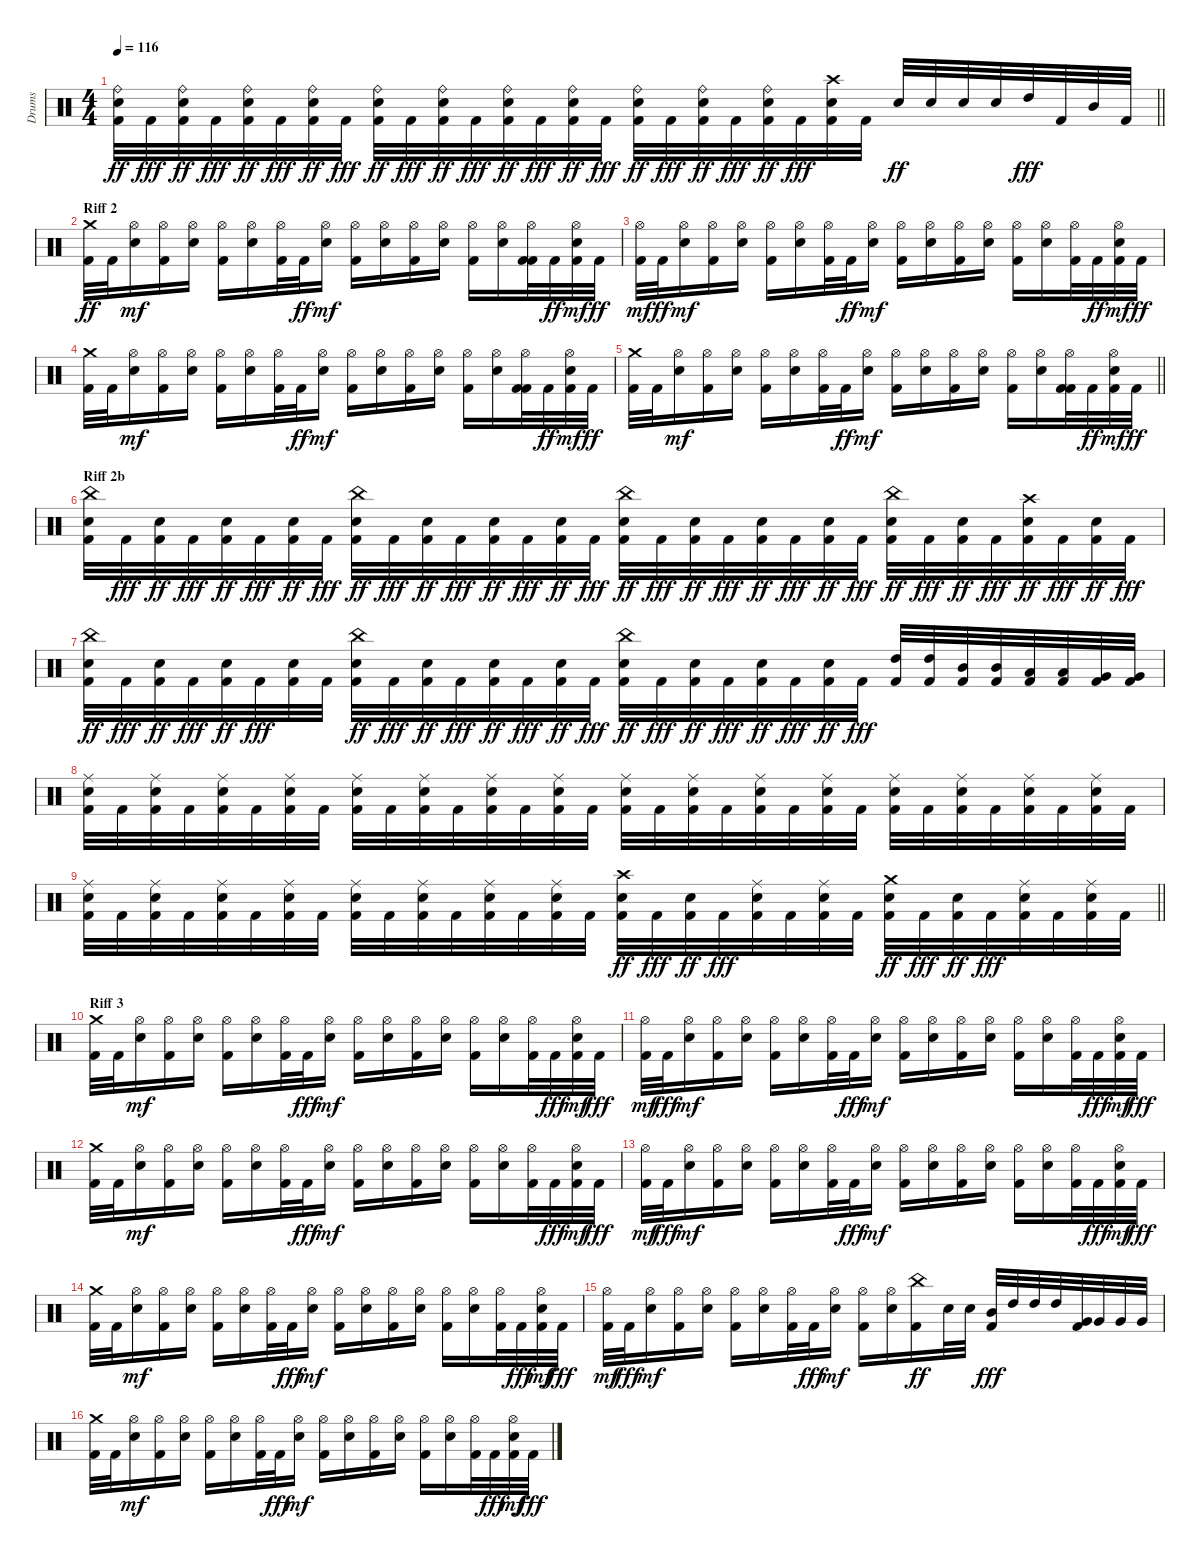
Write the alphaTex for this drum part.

\track ("Drums" "Drums") {instrument percussion}
\staff {score}
\articulation defaults
\ts (4 4)
\tempo 116
\clef neutral
\barLineRight lightlight
\ks c
("Kick (hit) 2" "Snare (hit) 2" "Ride (bell)").32{dy ff} "Kick (hit) 2".32{dy fff} ("Kick (hit) 2" "Snare (hit) 2" "Ride (bell)").32{dy ff} "Kick (hit) 2".32{dy fff} ("Kick (hit) 2" "Snare (hit) 2" "Ride (bell)").32{dy ff} "Kick (hit) 2".32{dy fff} ("Kick (hit) 2" "Snare (hit) 2" "Ride (bell)").32{dy ff} "Kick (hit) 2".32{dy fff} ("Kick (hit) 2" "Snare (hit) 2" "Ride (bell)").32{dy ff} "Kick (hit) 2".32{dy fff} ("Kick (hit) 2" "Snare (hit) 2" "Ride (bell)").32{dy ff} "Kick (hit) 2".32{dy fff} ("Kick (hit) 2" "Snare (hit) 2" "Ride (bell)").32{dy ff} "Kick (hit) 2".32{dy fff} ("Kick (hit) 2" "Snare (hit) 2" "Ride (bell)").32{dy ff} "Kick (hit) 2".32{dy fff} ("Kick (hit) 2" "Snare (hit) 2" "Ride (bell)").32{dy ff} "Kick (hit) 2".32{dy fff} ("Kick (hit) 2" "Snare (hit) 2" "Ride (bell)").32{dy ff} "Kick (hit) 2".32{dy fff} ("Kick (hit) 2" "Snare (hit) 2" "Ride (bell)").32{dy ff} "Kick (hit) 2".32{dy fff} ("Kick (hit) 2" "Snare (hit) 2" "Crash high (hit)").32 "Kick (hit) 2".32 "Snare (hit) 2".32{dy ff} "Snare (hit) 2".32 "Snare (hit) 2".32 "Snare (hit) 2".32 "High Tom (hit)".32{dy fff} "Kick (hit) 2".32 "Mid Tom (hit)".32 "Kick (hit) 2".32 |
\section ("" "Riff 2")
("Kick (hit) 2" "Crash medium (hit)").32{dy ff} "Kick (hit) 2".32 ("Snare (hit) 2" "Hi-Hat (open)").16{dy mf} ("Kick (hit) 2" "Hi-Hat (open)").16 ("Snare (hit) 2" "Hi-Hat (open)").16 ("Kick (hit) 2" "Hi-Hat (open)").16 ("Snare (hit) 2" "Hi-Hat (open)").16 ("Kick (hit) 2" "Hi-Hat (open)").32 "Kick (hit) 2".32{dy ff} ("Snare (hit) 2" "Hi-Hat (open)").16{dy mf} ("Kick (hit) 2" "Hi-Hat (open)").16 ("Snare (hit) 2" "Hi-Hat (open)").16 ("Kick (hit) 2" "Hi-Hat (open)").16 ("Snare (hit) 2" "Hi-Hat (open)").16 ("Kick (hit) 2" "Hi-Hat (open)").16 ("Snare (hit) 2" "Hi-Hat (open)").16 ("Kick (hit) 2" "Kick (hit) 2" "Hi-Hat (open)").32 "Kick (hit) 2".32{dy ff} ("Kick (hit) 2" "Snare (hit) 2" "Hi-Hat (open)").32{dy mf} "Kick (hit) 2".32{dy ff} |
("Kick (hit) 2" "Hi-Hat (open)").32{dy mf} "Kick (hit) 2".32{dy ff} ("Snare (hit) 2" "Hi-Hat (open)").16{dy mf} ("Kick (hit) 2" "Hi-Hat (open)").16 ("Snare (hit) 2" "Hi-Hat (open)").16 ("Kick (hit) 2" "Hi-Hat (open)").16 ("Snare (hit) 2" "Hi-Hat (open)").16 ("Kick (hit) 2" "Hi-Hat (open)").32 "Kick (hit) 2".32{dy ff} ("Snare (hit) 2" "Hi-Hat (open)").16{dy mf} ("Kick (hit) 2" "Hi-Hat (open)").16 ("Snare (hit) 2" "Hi-Hat (open)").16 ("Kick (hit) 2" "Hi-Hat (open)").16 ("Snare (hit) 2" "Hi-Hat (open)").16 ("Kick (hit) 2" "Hi-Hat (open)").16 ("Snare (hit) 2" "Hi-Hat (open)").16 ("Kick (hit) 2" "Hi-Hat (open)").32 "Kick (hit) 2".32{dy ff} ("Kick (hit) 2" "Snare (hit) 2" "Hi-Hat (open)").32{dy mf} "Kick (hit) 2".32{dy ff} |
("Kick (hit) 2" "Crash medium (hit)").32 "Kick (hit) 2".32 ("Snare (hit) 2" "Hi-Hat (open)").16{dy mf} ("Kick (hit) 2" "Hi-Hat (open)").16 ("Snare (hit) 2" "Hi-Hat (open)").16 ("Kick (hit) 2" "Hi-Hat (open)").16 ("Snare (hit) 2" "Hi-Hat (open)").16 ("Kick (hit) 2" "Hi-Hat (open)").32 "Kick (hit) 2".32{dy ff} ("Snare (hit) 2" "Hi-Hat (open)").16{dy mf} ("Kick (hit) 2" "Hi-Hat (open)").16 ("Snare (hit) 2" "Hi-Hat (open)").16 ("Kick (hit) 2" "Hi-Hat (open)").16 ("Snare (hit) 2" "Hi-Hat (open)").16 ("Kick (hit) 2" "Hi-Hat (open)").16 ("Snare (hit) 2" "Hi-Hat (open)").16 ("Kick (hit) 2" "Kick (hit) 2" "Hi-Hat (open)").32 "Kick (hit) 2".32{dy ff} ("Kick (hit) 2" "Snare (hit) 2" "Hi-Hat (open)").32{dy mf} "Kick (hit) 2".32{dy ff} |
\barLineRight lightlight
("Kick (hit) 2" "Crash medium (hit)").32 "Kick (hit) 2".32 ("Snare (hit) 2" "Hi-Hat (open)").16{dy mf} ("Kick (hit) 2" "Hi-Hat (open)").16 ("Snare (hit) 2" "Hi-Hat (open)").16 ("Kick (hit) 2" "Hi-Hat (open)").16 ("Snare (hit) 2" "Hi-Hat (open)").16 ("Kick (hit) 2" "Hi-Hat (open)").32 "Kick (hit) 2".32{dy ff} ("Snare (hit) 2" "Hi-Hat (open)").16{dy mf} ("Kick (hit) 2" "Hi-Hat (open)").16 ("Snare (hit) 2" "Hi-Hat (open)").16 ("Kick (hit) 2" "Hi-Hat (open)").16 ("Snare (hit) 2" "Hi-Hat (open)").16 ("Kick (hit) 2" "Hi-Hat (open)").16 ("Snare (hit) 2" "Hi-Hat (open)").16 ("Kick (hit) 2" "Kick (hit) 2" "Hi-Hat (open)").32 "Kick (hit) 2".32{dy ff} ("Kick (hit) 2" "Snare (hit) 2" "Hi-Hat (open)").32{dy mf} "Kick (hit) 2".32{dy ff} |
\section ("" "Riff 2b")
("Kick (hit) 2" "Snare (hit) 2" "China (hit)").32 "Kick (hit) 2".32{dy fff} ("Kick (hit) 2" "Snare (hit) 2").32{dy ff} "Kick (hit) 2".32{dy fff} ("Kick (hit) 2" "Snare (hit) 2").32{dy ff} "Kick (hit) 2".32{dy fff} ("Kick (hit) 2" "Snare (hit) 2").32{dy ff} "Kick (hit) 2".32{dy fff} ("Kick (hit) 2" "Snare (hit) 2" "China (hit)").32{dy ff} "Kick (hit) 2".32{dy fff} ("Kick (hit) 2" "Snare (hit) 2").32{dy ff} "Kick (hit) 2".32{dy fff} ("Kick (hit) 2" "Snare (hit) 2").32{dy ff} "Kick (hit) 2".32{dy fff} ("Kick (hit) 2" "Snare (hit) 2").32{dy ff} "Kick (hit) 2".32{dy fff} ("Kick (hit) 2" "Snare (hit) 2" "China (hit)").32{dy ff} "Kick (hit) 2".32{dy fff} ("Kick (hit) 2" "Snare (hit) 2").32{dy ff} "Kick (hit) 2".32{dy fff} ("Kick (hit) 2" "Snare (hit) 2").32{dy ff} "Kick (hit) 2".32{dy fff} ("Kick (hit) 2" "Snare (hit) 2").32{dy ff} "Kick (hit) 2".32{dy fff} ("Kick (hit) 2" "Snare (hit) 2" "China (hit)").32{dy ff} "Kick (hit) 2".32{dy fff} ("Kick (hit) 2" "Snare (hit) 2").32{dy ff} "Kick (hit) 2".32{dy fff} ("Kick (hit) 2" "Snare (hit) 2" "Crash high (hit)").32{dy ff} "Kick (hit) 2".32{dy fff} ("Kick (hit) 2" "Snare (hit) 2").32{dy ff} "Kick (hit) 2".32{dy fff} |
("Kick (hit) 2" "Snare (hit) 2" "China (hit)").32{dy ff} "Kick (hit) 2".32{dy fff} ("Kick (hit) 2" "Snare (hit) 2").32{dy ff} "Kick (hit) 2".32{dy fff} ("Kick (hit) 2" "Snare (hit) 2").32{dy ff} "Kick (hit) 2".32{dy fff} ("Kick (hit) 2" "Snare (hit) 2").32 "Kick (hit) 2".32 ("Kick (hit) 2" "Snare (hit) 2" "China (hit)").32{dy ff} "Kick (hit) 2".32{dy fff} ("Kick (hit) 2" "Snare (hit) 2").32{dy ff} "Kick (hit) 2".32{dy fff} ("Kick (hit) 2" "Snare (hit) 2").32{dy ff} "Kick (hit) 2".32{dy fff} ("Kick (hit) 2" "Snare (hit) 2").32{dy ff} "Kick (hit) 2".32{dy fff} ("Kick (hit) 2" "Snare (hit) 2" "China (hit)").32{dy ff} "Kick (hit) 2".32{dy fff} ("Kick (hit) 2" "Snare (hit) 2").32{dy ff} "Kick (hit) 2".32{dy fff} ("Kick (hit) 2" "Snare (hit) 2").32{dy ff} "Kick (hit) 2".32{dy fff} ("Kick (hit) 2" "Snare (hit) 2").32{dy ff} "Kick (hit) 2".32{dy fff} ("Kick (hit) 2" "High Tom (hit)").32 ("Kick (hit) 2" "High Tom (hit)").32 ("Kick (hit) 2" "Mid Tom (hit)").32 ("Kick (hit) 2" "Mid Tom (hit)").32 ("Kick (hit) 2" "Low Tom (hit)").32 ("Kick (hit) 2" "Low Tom (hit)").32 ("Kick (hit) 2" "Very Low Tom (hit)").32 ("Kick (hit) 2" "Very Low Tom (hit)").32 |
("Kick (hit) 2" "Snare (hit) 2" "Ride (middle)").32 "Kick (hit) 2".32 ("Kick (hit) 2" "Snare (hit) 2" "Ride (middle)").32 "Kick (hit) 2".32 ("Kick (hit) 2" "Snare (hit) 2" "Ride (middle)").32 "Kick (hit) 2".32 ("Kick (hit) 2" "Snare (hit) 2" "Ride (middle)").32 "Kick (hit) 2".32 ("Kick (hit) 2" "Snare (hit) 2" "Ride (middle)").32 "Kick (hit) 2".32 ("Kick (hit) 2" "Snare (hit) 2" "Ride (middle)").32 "Kick (hit) 2".32 ("Kick (hit) 2" "Snare (hit) 2" "Ride (middle)").32 "Kick (hit) 2".32 ("Kick (hit) 2" "Snare (hit) 2" "Ride (middle)").32 "Kick (hit) 2".32 ("Kick (hit) 2" "Snare (hit) 2" "Ride (middle)").32 "Kick (hit) 2".32 ("Kick (hit) 2" "Snare (hit) 2" "Ride (middle)").32 "Kick (hit) 2".32 ("Kick (hit) 2" "Snare (hit) 2" "Ride (middle)").32 "Kick (hit) 2".32 ("Kick (hit) 2" "Snare (hit) 2" "Ride (middle)").32 "Kick (hit) 2".32 ("Kick (hit) 2" "Snare (hit) 2" "Ride (middle)").32 "Kick (hit) 2".32 ("Kick (hit) 2" "Snare (hit) 2" "Ride (middle)").32 "Kick (hit) 2".32 ("Kick (hit) 2" "Snare (hit) 2" "Ride (middle)").32 "Kick (hit) 2".32 ("Kick (hit) 2" "Snare (hit) 2" "Ride (middle)").32 "Kick (hit) 2".32 |
\barLineRight lightlight
("Kick (hit) 2" "Snare (hit) 2" "Ride (middle)").32 "Kick (hit) 2".32 ("Kick (hit) 2" "Snare (hit) 2" "Ride (middle)").32 "Kick (hit) 2".32 ("Kick (hit) 2" "Snare (hit) 2" "Ride (middle)").32 "Kick (hit) 2".32 ("Kick (hit) 2" "Snare (hit) 2" "Ride (middle)").32 "Kick (hit) 2".32 ("Kick (hit) 2" "Snare (hit) 2" "Ride (middle)").32 "Kick (hit) 2".32 ("Kick (hit) 2" "Snare (hit) 2" "Ride (middle)").32 "Kick (hit) 2".32 ("Kick (hit) 2" "Snare (hit) 2" "Ride (middle)").32 "Kick (hit) 2".32 ("Kick (hit) 2" "Snare (hit) 2" "Ride (middle)").32 "Kick (hit) 2".32 ("Kick (hit) 2" "Snare (hit) 2" "Crash high (hit)").32{dy ff} "Kick (hit) 2".32{dy fff} ("Kick (hit) 2" "Snare (hit) 2").32{dy ff} "Kick (hit) 2".32{dy fff} ("Kick (hit) 2" "Snare (hit) 2" "Ride (middle)").32 "Kick (hit) 2".32 ("Kick (hit) 2" "Snare (hit) 2" "Ride (middle)").32 "Kick (hit) 2".32 ("Kick (hit) 2" "Snare (hit) 2" "Crash medium (hit)").32{dy ff} "Kick (hit) 2".32{dy fff} ("Kick (hit) 2" "Snare (hit) 2").32{dy ff} "Kick (hit) 2".32{dy fff} ("Kick (hit) 2" "Snare (hit) 2" "Ride (middle)").32 "Kick (hit) 2".32 ("Kick (hit) 2" "Snare (hit) 2" "Ride (middle)").32 "Kick (hit) 2".32 |
\section ("" "Riff 3")
("Kick (hit) 2" "Crash medium (hit)").32 "Kick (hit) 2".32 ("Snare (hit) 2" "Hi-Hat (open)").16{dy mf} ("Kick (hit) 2" "Hi-Hat (open)").16 ("Snare (hit) 2" "Hi-Hat (open)").16 ("Kick (hit) 2" "Hi-Hat (open)").16 ("Snare (hit) 2" "Hi-Hat (open)").16 ("Kick (hit) 2" "Hi-Hat (open)").32 "Kick (hit) 2".32{dy fff} ("Snare (hit) 2" "Hi-Hat (open)").16{dy mf} ("Kick (hit) 2" "Hi-Hat (open)").16 ("Snare (hit) 2" "Hi-Hat (open)").16 ("Kick (hit) 2" "Hi-Hat (open)").16 ("Snare (hit) 2" "Hi-Hat (open)").16 ("Kick (hit) 2" "Hi-Hat (open)").16 ("Snare (hit) 2" "Hi-Hat (open)").16 ("Kick (hit) 2" "Hi-Hat (open)").32 "Kick (hit) 2".32{dy fff} ("Kick (hit) 2" "Snare (hit) 2" "Hi-Hat (open)").32{dy mf} "Kick (hit) 2".32{dy fff} |
("Kick (hit) 2" "Hi-Hat (open)").32{dy mf} "Kick (hit) 2".32{dy fff} ("Snare (hit) 2" "Hi-Hat (open)").16{dy mf} ("Kick (hit) 2" "Hi-Hat (open)").16 ("Snare (hit) 2" "Hi-Hat (open)").16 ("Kick (hit) 2" "Hi-Hat (open)").16 ("Snare (hit) 2" "Hi-Hat (open)").16 ("Kick (hit) 2" "Hi-Hat (open)").32 "Kick (hit) 2".32{dy fff} ("Snare (hit) 2" "Hi-Hat (open)").16{dy mf} ("Kick (hit) 2" "Hi-Hat (open)").16 ("Snare (hit) 2" "Hi-Hat (open)").16 ("Kick (hit) 2" "Hi-Hat (open)").16 ("Snare (hit) 2" "Hi-Hat (open)").16 ("Kick (hit) 2" "Hi-Hat (open)").16 ("Snare (hit) 2" "Hi-Hat (open)").16 ("Kick (hit) 2" "Hi-Hat (open)").32 "Kick (hit) 2".32{dy fff} ("Kick (hit) 2" "Snare (hit) 2" "Hi-Hat (open)").32{dy mf} "Kick (hit) 2".32{dy fff} |
("Kick (hit) 2" "Crash medium (hit)").32 "Kick (hit) 2".32 ("Snare (hit) 2" "Hi-Hat (open)").16{dy mf} ("Kick (hit) 2" "Hi-Hat (open)").16 ("Snare (hit) 2" "Hi-Hat (open)").16 ("Kick (hit) 2" "Hi-Hat (open)").16 ("Snare (hit) 2" "Hi-Hat (open)").16 ("Kick (hit) 2" "Hi-Hat (open)").32 "Kick (hit) 2".32{dy fff} ("Snare (hit) 2" "Hi-Hat (open)").16{dy mf} ("Kick (hit) 2" "Hi-Hat (open)").16 ("Snare (hit) 2" "Hi-Hat (open)").16 ("Kick (hit) 2" "Hi-Hat (open)").16 ("Snare (hit) 2" "Hi-Hat (open)").16 ("Kick (hit) 2" "Hi-Hat (open)").16 ("Snare (hit) 2" "Hi-Hat (open)").16 ("Kick (hit) 2" "Hi-Hat (open)").32 "Kick (hit) 2".32{dy fff} ("Kick (hit) 2" "Snare (hit) 2" "Hi-Hat (open)").32{dy mf} "Kick (hit) 2".32{dy fff} |
("Kick (hit) 2" "Hi-Hat (open)").32{dy mf} "Kick (hit) 2".32{dy fff} ("Snare (hit) 2" "Hi-Hat (open)").16{dy mf} ("Kick (hit) 2" "Hi-Hat (open)").16 ("Snare (hit) 2" "Hi-Hat (open)").16 ("Kick (hit) 2" "Hi-Hat (open)").16 ("Snare (hit) 2" "Hi-Hat (open)").16 ("Kick (hit) 2" "Hi-Hat (open)").32 "Kick (hit) 2".32{dy fff} ("Snare (hit) 2" "Hi-Hat (open)").16{dy mf} ("Kick (hit) 2" "Hi-Hat (open)").16 ("Snare (hit) 2" "Hi-Hat (open)").16 ("Kick (hit) 2" "Hi-Hat (open)").16 ("Snare (hit) 2" "Hi-Hat (open)").16 ("Kick (hit) 2" "Hi-Hat (open)").16 ("Snare (hit) 2" "Hi-Hat (open)").16 ("Kick (hit) 2" "Hi-Hat (open)").32 "Kick (hit) 2".32{dy fff} ("Kick (hit) 2" "Snare (hit) 2" "Hi-Hat (open)").32{dy mf} "Kick (hit) 2".32{dy fff} |
("Kick (hit) 2" "Crash medium (hit)").32 "Kick (hit) 2".32 ("Snare (hit) 2" "Hi-Hat (open)").16{dy mf} ("Kick (hit) 2" "Hi-Hat (open)").16 ("Snare (hit) 2" "Hi-Hat (open)").16 ("Kick (hit) 2" "Hi-Hat (open)").16 ("Snare (hit) 2" "Hi-Hat (open)").16 ("Kick (hit) 2" "Hi-Hat (open)").32 "Kick (hit) 2".32{dy fff} ("Snare (hit) 2" "Hi-Hat (open)").16{dy mf} ("Kick (hit) 2" "Hi-Hat (open)").16 ("Snare (hit) 2" "Hi-Hat (open)").16 ("Kick (hit) 2" "Hi-Hat (open)").16 ("Snare (hit) 2" "Hi-Hat (open)").16 ("Kick (hit) 2" "Hi-Hat (open)").16 ("Snare (hit) 2" "Hi-Hat (open)").16 ("Kick (hit) 2" "Hi-Hat (open)").32 "Kick (hit) 2".32{dy fff} ("Kick (hit) 2" "Snare (hit) 2" "Hi-Hat (open)").32{dy mf} "Kick (hit) 2".32{dy fff} |
("Kick (hit) 2" "Hi-Hat (open)").32{dy mf} "Kick (hit) 2".32{dy fff} ("Snare (hit) 2" "Hi-Hat (open)").16{dy mf} ("Kick (hit) 2" "Hi-Hat (open)").16 ("Snare (hit) 2" "Hi-Hat (open)").16 ("Kick (hit) 2" "Hi-Hat (open)").16 ("Snare (hit) 2" "Hi-Hat (open)").16 ("Kick (hit) 2" "Hi-Hat (open)").32 "Kick (hit) 2".32{dy fff} ("Snare (hit) 2" "Hi-Hat (open)").16{dy mf} ("Kick (hit) 2" "Hi-Hat (open)").16 ("Snare (hit) 2" "Hi-Hat (open)").16 ("Kick (hit) 2" "China (hit)").16{dy ff} "Snare (hit) 2".32 "Snare (hit) 2".32 ("Kick (hit) 2" "Mid Tom (hit)").32{dy fff} "High Tom (hit)".32 "High Tom (hit)".32 "High Tom (hit)".32 ("Kick (hit) 2" "Very Low Tom (hit)").32 "Very Low Tom (hit)".32 "Very Low Tom (hit)".32 "Very Low Tom (hit)".32 |
("Kick (hit) 2" "Crash medium (hit)").32 "Kick (hit) 2".32 ("Snare (hit) 2" "Hi-Hat (open)").16{dy mf} ("Kick (hit) 2" "Hi-Hat (open)").16 ("Snare (hit) 2" "Hi-Hat (open)").16 ("Kick (hit) 2" "Hi-Hat (open)").16 ("Snare (hit) 2" "Hi-Hat (open)").16 ("Kick (hit) 2" "Hi-Hat (open)").32 "Kick (hit) 2".32{dy fff} ("Snare (hit) 2" "Hi-Hat (open)").16{dy mf} ("Kick (hit) 2" "Hi-Hat (open)").16 ("Snare (hit) 2" "Hi-Hat (open)").16 ("Kick (hit) 2" "Hi-Hat (open)").16 ("Snare (hit) 2" "Hi-Hat (open)").16 ("Kick (hit) 2" "Hi-Hat (open)").16 ("Snare (hit) 2" "Hi-Hat (open)").16 ("Kick (hit) 2" "Hi-Hat (open)").32 "Kick (hit) 2".32{dy fff} ("Kick (hit) 2" "Snare (hit) 2" "Hi-Hat (open)").32{dy mf} "Kick (hit) 2".32{dy fff}
